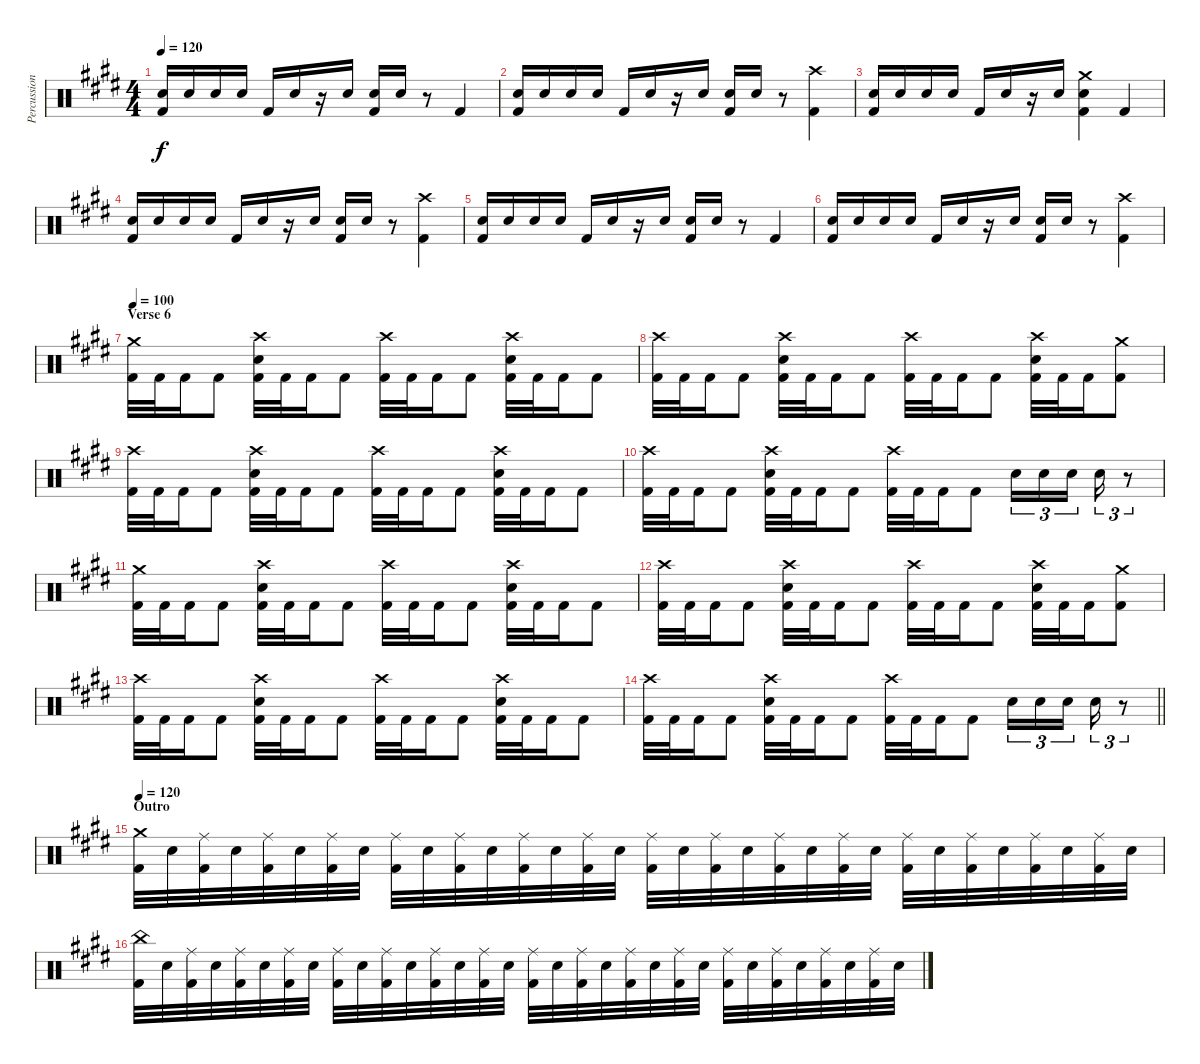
\track ("Percussion" "Percussion") {instrument percussion}
\staff {score}
\articulation defaults
\ts (4 4)
\tempo 120
\clef neutral
\ks c#minor
("Snare (hit) 2" "Kick (hit) 2").16{dy f} "Snare (hit) 2".16 "Snare (hit) 2".16 "Snare (hit) 2".16 "Kick (hit) 2".16 "Snare (hit) 2".16 r.16 "Snare (hit) 2".16 ("Snare (hit) 2" "Kick (hit) 2").16 "Snare (hit) 2".16 r.8 "Kick (hit) 2".4 |
("Snare (hit) 2" "Kick (hit) 2").16 "Snare (hit) 2".16 "Snare (hit) 2".16 "Snare (hit) 2".16 "Kick (hit) 2".16 "Snare (hit) 2".16 r.16 "Snare (hit) 2".16 ("Snare (hit) 2" "Kick (hit) 2").16 "Snare (hit) 2".16 r.8 ("Crash high (hit)" "Kick (hit) 2").4 |
("Snare (hit) 2" "Kick (hit) 2").16 "Snare (hit) 2".16 "Snare (hit) 2".16 "Snare (hit) 2".16 "Kick (hit) 2".16 "Snare (hit) 2".16 r.16 "Snare (hit) 2".16 ("Crash medium (hit)" "Snare (hit) 2" "Kick (hit) 2").4 "Kick (hit) 2".4 |
("Snare (hit) 2" "Kick (hit) 2").16 "Snare (hit) 2".16 "Snare (hit) 2".16 "Snare (hit) 2".16 "Kick (hit) 2".16 "Snare (hit) 2".16 r.16 "Snare (hit) 2".16 ("Snare (hit) 2" "Kick (hit) 2").16 "Snare (hit) 2".16 r.8 ("Crash high (hit)" "Kick (hit) 2").4 |
("Snare (hit) 2" "Kick (hit) 2").16 "Snare (hit) 2".16 "Snare (hit) 2".16 "Snare (hit) 2".16 "Kick (hit) 2".16 "Snare (hit) 2".16 r.16 "Snare (hit) 2".16 ("Snare (hit) 2" "Kick (hit) 2").16 "Snare (hit) 2".16 r.8 "Kick (hit) 2".4 |
("Snare (hit) 2" "Kick (hit) 2").16 "Snare (hit) 2".16 "Snare (hit) 2".16 "Snare (hit) 2".16 "Kick (hit) 2".16 "Snare (hit) 2".16 r.16 "Snare (hit) 2".16 ("Snare (hit) 2" "Kick (hit) 2").16 "Snare (hit) 2".16 r.8 ("Crash high (hit)" "Kick (hit) 2").4 |
\section ("" "Verse 6")
\tempo 100
("Crash medium (hit)" "Kick (hit) 2").32 "Kick (hit) 2".32 "Kick (hit) 2".16 "Kick (hit) 2".8 ("Crash high (hit)" "Snare (hit) 2" "Kick (hit) 2").32 "Kick (hit) 2".32 "Kick (hit) 2".16 "Kick (hit) 2".8 ("Crash high (hit)" "Kick (hit) 2").32 "Kick (hit) 2".32 "Kick (hit) 2".16 "Kick (hit) 2".8 ("Crash high (hit)" "Snare (hit) 2" "Kick (hit) 2").32 "Kick (hit) 2".32 "Kick (hit) 2".16 "Kick (hit) 2".8 |
("Crash high (hit)" "Kick (hit) 2").32 "Kick (hit) 2".32 "Kick (hit) 2".16 "Kick (hit) 2".8 ("Crash high (hit)" "Snare (hit) 2" "Kick (hit) 2").32 "Kick (hit) 2".32 "Kick (hit) 2".16 "Kick (hit) 2".8 ("Crash high (hit)" "Kick (hit) 2").32 "Kick (hit) 2".32 "Kick (hit) 2".16 "Kick (hit) 2".8 ("Crash high (hit)" "Snare (hit) 2" "Kick (hit) 2").32 "Kick (hit) 2".32 "Kick (hit) 2".16 ("Crash medium (hit)" "Kick (hit) 2").8 |
("Crash high (hit)" "Kick (hit) 2").32 "Kick (hit) 2".32 "Kick (hit) 2".16 "Kick (hit) 2".8 ("Crash high (hit)" "Snare (hit) 2" "Kick (hit) 2").32 "Kick (hit) 2".32 "Kick (hit) 2".16 "Kick (hit) 2".8 ("Crash high (hit)" "Kick (hit) 2").32 "Kick (hit) 2".32 "Kick (hit) 2".16 "Kick (hit) 2".8 ("Crash high (hit)" "Snare (hit) 2" "Kick (hit) 2").32 "Kick (hit) 2".32 "Kick (hit) 2".16 "Kick (hit) 2".8 |
("Crash high (hit)" "Kick (hit) 2").32 "Kick (hit) 2".32 "Kick (hit) 2".16 "Kick (hit) 2".8 ("Crash high (hit)" "Snare (hit) 2" "Kick (hit) 2").32 "Kick (hit) 2".32 "Kick (hit) 2".16 "Kick (hit) 2".8 ("Crash high (hit)" "Kick (hit) 2").32 "Kick (hit) 2".32 "Kick (hit) 2".16 "Kick (hit) 2".8 "Snare (hit) 2".16{tu (3 2)} "Snare (hit) 2".16{tu (3 2)} "Snare (hit) 2".16{tu (3 2)} "Snare (hit) 2".16{tu (3 2)} r.8{tu (3 2)} |
("Crash medium (hit)" "Kick (hit) 2").32 "Kick (hit) 2".32 "Kick (hit) 2".16 "Kick (hit) 2".8 ("Crash high (hit)" "Snare (hit) 2" "Kick (hit) 2").32 "Kick (hit) 2".32 "Kick (hit) 2".16 "Kick (hit) 2".8 ("Crash high (hit)" "Kick (hit) 2").32 "Kick (hit) 2".32 "Kick (hit) 2".16 "Kick (hit) 2".8 ("Crash high (hit)" "Snare (hit) 2" "Kick (hit) 2").32 "Kick (hit) 2".32 "Kick (hit) 2".16 "Kick (hit) 2".8 |
("Crash high (hit)" "Kick (hit) 2").32 "Kick (hit) 2".32 "Kick (hit) 2".16 "Kick (hit) 2".8 ("Crash high (hit)" "Snare (hit) 2" "Kick (hit) 2").32 "Kick (hit) 2".32 "Kick (hit) 2".16 "Kick (hit) 2".8 ("Crash high (hit)" "Kick (hit) 2").32 "Kick (hit) 2".32 "Kick (hit) 2".16 "Kick (hit) 2".8 ("Crash high (hit)" "Snare (hit) 2" "Kick (hit) 2").32 "Kick (hit) 2".32 "Kick (hit) 2".16 ("Crash medium (hit)" "Kick (hit) 2").8 |
("Crash high (hit)" "Kick (hit) 2").32 "Kick (hit) 2".32 "Kick (hit) 2".16 "Kick (hit) 2".8 ("Crash high (hit)" "Snare (hit) 2" "Kick (hit) 2").32 "Kick (hit) 2".32 "Kick (hit) 2".16 "Kick (hit) 2".8 ("Crash high (hit)" "Kick (hit) 2").32 "Kick (hit) 2".32 "Kick (hit) 2".16 "Kick (hit) 2".8 ("Crash high (hit)" "Snare (hit) 2" "Kick (hit) 2").32 "Kick (hit) 2".32 "Kick (hit) 2".16 "Kick (hit) 2".8 |
\barLineRight lightlight
("Crash high (hit)" "Kick (hit) 2").32 "Kick (hit) 2".32 "Kick (hit) 2".16 "Kick (hit) 2".8 ("Crash high (hit)" "Snare (hit) 2" "Kick (hit) 2").32 "Kick (hit) 2".32 "Kick (hit) 2".16 "Kick (hit) 2".8 ("Crash high (hit)" "Kick (hit) 2").32 "Kick (hit) 2".32 "Kick (hit) 2".16 "Kick (hit) 2".8 "Snare (hit) 2".16{tu (3 2)} "Snare (hit) 2".16{tu (3 2)} "Snare (hit) 2".16{tu (3 2)} "Snare (hit) 2".16{tu (3 2)} r.8{tu (3 2)} |
\section ("" "Outro")
\tempo 120
("Crash medium (hit)" "Kick (hit) 2").32 "Snare (hit) 2".32 ("Ride (middle)" "Kick (hit) 2").32 "Snare (hit) 2".32 ("Ride (middle)" "Kick (hit) 2").32 "Snare (hit) 2".32 ("Ride (middle)" "Kick (hit) 2").32 "Snare (hit) 2".32 ("Ride (middle)" "Kick (hit) 2").32 "Snare (hit) 2".32 ("Ride (middle)" "Kick (hit) 2").32 "Snare (hit) 2".32 ("Ride (middle)" "Kick (hit) 2").32 "Snare (hit) 2".32 ("Ride (middle)" "Kick (hit) 2").32 "Snare (hit) 2".32 ("Ride (middle)" "Kick (hit) 2").32 "Snare (hit) 2".32 ("Ride (middle)" "Kick (hit) 2").32 "Snare (hit) 2".32 ("Ride (middle)" "Kick (hit) 2").32 "Snare (hit) 2".32 ("Ride (middle)" "Kick (hit) 2").32 "Snare (hit) 2".32 ("Ride (middle)" "Kick (hit) 2").32 "Snare (hit) 2".32 ("Ride (middle)" "Kick (hit) 2").32 "Snare (hit) 2".32 ("Ride (middle)" "Kick (hit) 2").32 "Snare (hit) 2".32 ("Ride (middle)" "Kick (hit) 2").32 "Snare (hit) 2".32 |
("China (hit)" "Kick (hit) 2").32 "Snare (hit) 2".32 ("Ride (middle)" "Kick (hit) 2").32 "Snare (hit) 2".32 ("Ride (middle)" "Kick (hit) 2").32 "Snare (hit) 2".32 ("Ride (middle)" "Kick (hit) 2").32 "Snare (hit) 2".32 ("Ride (middle)" "Kick (hit) 2").32 "Snare (hit) 2".32 ("Ride (middle)" "Kick (hit) 2").32 "Snare (hit) 2".32 ("Ride (middle)" "Kick (hit) 2").32 "Snare (hit) 2".32 ("Ride (middle)" "Kick (hit) 2").32 "Snare (hit) 2".32 ("Ride (middle)" "Kick (hit) 2").32 "Snare (hit) 2".32 ("Ride (middle)" "Kick (hit) 2").32 "Snare (hit) 2".32 ("Ride (middle)" "Kick (hit) 2").32 "Snare (hit) 2".32 ("Ride (middle)" "Kick (hit) 2").32 "Snare (hit) 2".32 ("Ride (middle)" "Kick (hit) 2").32 "Snare (hit) 2".32 ("Ride (middle)" "Kick (hit) 2").32 "Snare (hit) 2".32 ("Ride (middle)" "Kick (hit) 2").32 "Snare (hit) 2".32 ("Ride (middle)" "Kick (hit) 2").32 "Snare (hit) 2".32
